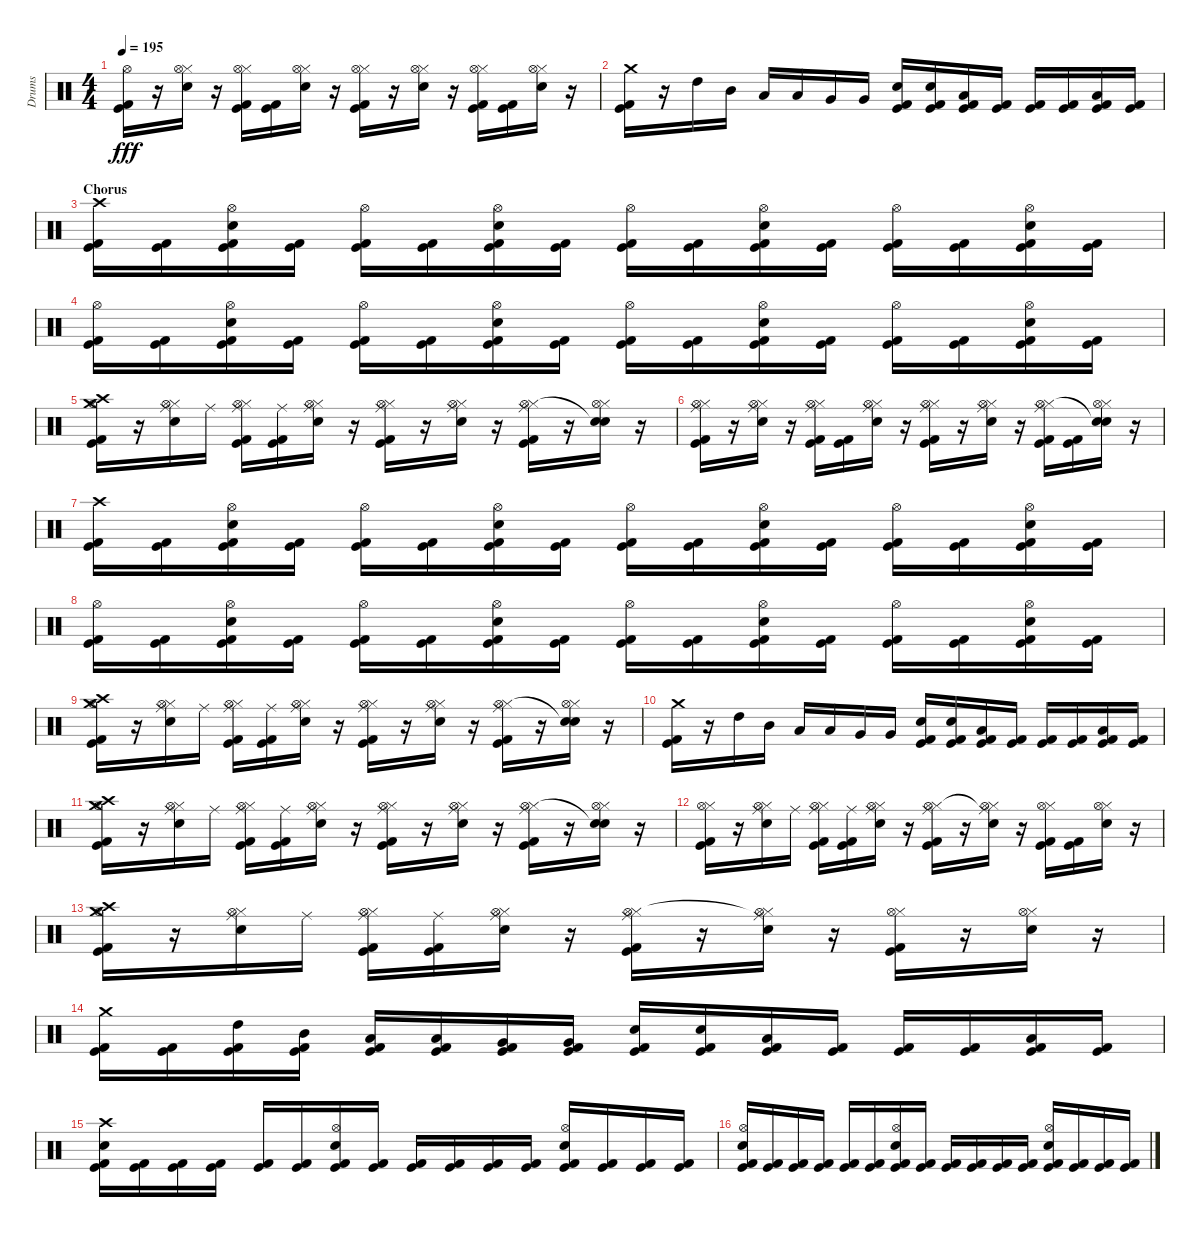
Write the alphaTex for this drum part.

\track ("Drums" "Drums") {instrument percussion}
\staff {score}
\articulation defaults
\ts (4 4)
\tempo 195
\clef neutral
\ks c
("Kick (hit) 2" "Kick (hit)" "Hi-Hat (open)").16{dy fff} r.16 ("Snare (hit) 2" "Hi-Hat (closed)" "Hi-Hat (open)").16 r.16 ("Kick (hit) 2" "Kick (hit)" "Hi-Hat (closed)" "Hi-Hat (open)").16 ("Kick (hit) 2" "Kick (hit)").16 ("Snare (hit) 2" "Hi-Hat (closed)" "Hi-Hat (open)").16 r.16 ("Kick (hit) 2" "Kick (hit)" "Hi-Hat (closed)" "Hi-Hat (open)").16 r.16 ("Snare (hit) 2" "Hi-Hat (closed)" "Hi-Hat (open)").16 r.16 ("Kick (hit) 2" "Kick (hit)" "Hi-Hat (closed)" "Hi-Hat (open)").16 ("Kick (hit) 2" "Kick (hit)").16 ("Snare (hit) 2" "Hi-Hat (closed)" "Hi-Hat (open)").16 r.16 |
("Kick (hit) 2" "Kick (hit)" "Crash medium (hit)").16 r.16 "High Tom (hit)".16 "Mid Tom (hit)".16 "Low Tom (hit)".16 "Low Tom (hit)".16 "Very Low Tom (hit)".16 "Very Low Tom (hit)".16 ("Kick (hit) 2" "Kick (hit)" "Snare (hit) 2").16 ("Kick (hit) 2" "Kick (hit)" "Snare (hit) 2").16 ("Kick (hit) 2" "Kick (hit)" "Low Tom (hit)").16 ("Kick (hit) 2" "Kick (hit)").16 ("Kick (hit) 2" "Kick (hit)").16 ("Kick (hit) 2" "Kick (hit)").16 ("Kick (hit) 2" "Kick (hit)" "Low Floor Tom (hit)").16 ("Kick (hit) 2" "Kick (hit)").16 |
\section ("" "Chorus")
("Kick (hit) 2" "Kick (hit)" "Crash high (hit)").16 ("Kick (hit) 2" "Kick (hit)").16 ("Kick (hit) 2" "Kick (hit)" "Snare (hit) 2" "Hi-Hat (open)").16 ("Kick (hit) 2" "Kick (hit)").16 ("Kick (hit) 2" "Kick (hit)" "Hi-Hat (open)").16 ("Kick (hit) 2" "Kick (hit)").16 ("Kick (hit) 2" "Kick (hit)" "Snare (hit) 2" "Hi-Hat (open)").16 ("Kick (hit) 2" "Kick (hit)").16 ("Kick (hit) 2" "Kick (hit)" "Hi-Hat (open)").16 ("Kick (hit) 2" "Kick (hit)").16 ("Kick (hit) 2" "Kick (hit)" "Snare (hit) 2" "Hi-Hat (open)").16 ("Kick (hit) 2" "Kick (hit)").16 ("Kick (hit) 2" "Kick (hit)" "Hi-Hat (open)").16 ("Kick (hit) 2" "Kick (hit)").16 ("Kick (hit) 2" "Kick (hit)" "Snare (hit) 2" "Hi-Hat (open)").16 ("Kick (hit) 2" "Kick (hit)").16 |
("Kick (hit) 2" "Kick (hit)" "Hi-Hat (open)").16 ("Kick (hit) 2" "Kick (hit)").16 ("Kick (hit) 2" "Kick (hit)" "Snare (hit) 2" "Hi-Hat (open)").16 ("Kick (hit) 2" "Kick (hit)").16 ("Kick (hit) 2" "Kick (hit)" "Hi-Hat (open)").16 ("Kick (hit) 2" "Kick (hit)").16 ("Kick (hit) 2" "Kick (hit)" "Snare (hit) 2" "Hi-Hat (open)").16 ("Kick (hit) 2" "Kick (hit)").16 ("Kick (hit) 2" "Kick (hit)" "Hi-Hat (open)").16 ("Kick (hit) 2" "Kick (hit)").16 ("Kick (hit) 2" "Kick (hit)" "Snare (hit) 2" "Hi-Hat (open)").16 ("Kick (hit) 2" "Kick (hit)").16 ("Kick (hit) 2" "Kick (hit)" "Hi-Hat (open)").16 ("Kick (hit) 2" "Kick (hit)").16 ("Kick (hit) 2" "Kick (hit)" "Snare (hit) 2" "Hi-Hat (open)").16 ("Kick (hit) 2" "Kick (hit)").16 |
("Kick (hit) 2" "Kick (hit)" "Crash high (hit)" "Hi-Hat (open)" "Crash medium (hit)").16 r.16 ("Snare (hit) 2" "Hi-Hat (closed)" "Ride (middle)" "Hi-Hat (open)").16 "Ride (middle)".16 ("Kick (hit) 2" "Kick (hit)" "Hi-Hat (closed)" "Ride (middle)" "Hi-Hat (open)").16 ("Kick (hit) 2" "Kick (hit)" "Ride (middle)").16 ("Snare (hit) 2" "Hi-Hat (closed)" "Ride (middle)" "Hi-Hat (open)").16 r.16 ("Kick (hit) 2" "Kick (hit)" "Hi-Hat (closed)" "Ride (middle)" "Hi-Hat (open)").16 r.16 ("Snare (hit) 2" "Hi-Hat (closed)" "Ride (middle)" "Hi-Hat (open)").16 r.16 ("Kick (hit) 2" "Kick (hit)" "Hi-Hat (closed)" "Ride (middle)" "Hi-Hat (open)").16 r.16 ("Snare (hit) 2" "Hi-Hat (closed)" "Snare (hit)"{t} "Hi-Hat (open)").16 r.16 |
("Kick (hit) 2" "Kick (hit)" "Hi-Hat (closed)" "Ride (middle)" "Hi-Hat (open)").16 r.16 ("Snare (hit) 2" "Hi-Hat (closed)" "Ride (middle)" "Hi-Hat (open)").16 r.16 ("Kick (hit) 2" "Kick (hit)" "Hi-Hat (closed)" "Ride (middle)" "Hi-Hat (open)").16 ("Kick (hit) 2" "Kick (hit)").16 ("Snare (hit) 2" "Hi-Hat (closed)" "Ride (middle)" "Hi-Hat (open)").16 r.16 ("Kick (hit) 2" "Kick (hit)" "Hi-Hat (closed)" "Ride (middle)" "Hi-Hat (open)").16 r.16 ("Snare (hit) 2" "Hi-Hat (closed)" "Ride (middle)" "Hi-Hat (open)").16 r.16 ("Kick (hit) 2" "Kick (hit)" "Hi-Hat (closed)" "Ride (middle)" "Hi-Hat (open)").16 ("Kick (hit) 2" "Kick (hit)").16 ("Snare (hit) 2" "Hi-Hat (closed)" "Snare (hit)"{t} "Hi-Hat (open)").16 r.16 |
("Kick (hit) 2" "Kick (hit)" "Crash high (hit)").16 ("Kick (hit) 2" "Kick (hit)").16 ("Kick (hit) 2" "Kick (hit)" "Snare (hit) 2" "Hi-Hat (open)").16 ("Kick (hit) 2" "Kick (hit)").16 ("Kick (hit) 2" "Kick (hit)" "Hi-Hat (open)").16 ("Kick (hit) 2" "Kick (hit)").16 ("Kick (hit) 2" "Kick (hit)" "Snare (hit) 2" "Hi-Hat (open)").16 ("Kick (hit) 2" "Kick (hit)").16 ("Kick (hit) 2" "Kick (hit)" "Hi-Hat (open)").16 ("Kick (hit) 2" "Kick (hit)").16 ("Kick (hit) 2" "Kick (hit)" "Snare (hit) 2" "Hi-Hat (open)").16 ("Kick (hit) 2" "Kick (hit)").16 ("Kick (hit) 2" "Kick (hit)" "Hi-Hat (open)").16 ("Kick (hit) 2" "Kick (hit)").16 ("Kick (hit) 2" "Kick (hit)" "Snare (hit) 2" "Hi-Hat (open)").16 ("Kick (hit) 2" "Kick (hit)").16 |
("Kick (hit) 2" "Kick (hit)" "Hi-Hat (open)").16 ("Kick (hit) 2" "Kick (hit)").16 ("Kick (hit) 2" "Kick (hit)" "Snare (hit) 2" "Hi-Hat (open)").16 ("Kick (hit) 2" "Kick (hit)").16 ("Kick (hit) 2" "Kick (hit)" "Hi-Hat (open)").16 ("Kick (hit) 2" "Kick (hit)").16 ("Kick (hit) 2" "Kick (hit)" "Snare (hit) 2" "Hi-Hat (open)").16 ("Kick (hit) 2" "Kick (hit)").16 ("Kick (hit) 2" "Kick (hit)" "Hi-Hat (open)").16 ("Kick (hit) 2" "Kick (hit)").16 ("Kick (hit) 2" "Kick (hit)" "Snare (hit) 2" "Hi-Hat (open)").16 ("Kick (hit) 2" "Kick (hit)").16 ("Kick (hit) 2" "Kick (hit)" "Hi-Hat (open)").16 ("Kick (hit) 2" "Kick (hit)").16 ("Kick (hit) 2" "Kick (hit)" "Snare (hit) 2" "Hi-Hat (open)").16 ("Kick (hit) 2" "Kick (hit)").16 |
("Kick (hit) 2" "Kick (hit)" "Crash high (hit)" "Hi-Hat (open)" "Crash medium (hit)").16 r.16 ("Snare (hit) 2" "Hi-Hat (closed)" "Ride (middle)" "Hi-Hat (open)").16 "Ride (middle)".16 ("Kick (hit) 2" "Kick (hit)" "Hi-Hat (closed)" "Ride (middle)" "Hi-Hat (open)").16 ("Kick (hit) 2" "Kick (hit)" "Ride (middle)").16 ("Snare (hit) 2" "Hi-Hat (closed)" "Ride (middle)" "Hi-Hat (open)").16 r.16 ("Kick (hit) 2" "Kick (hit)" "Hi-Hat (closed)" "Ride (middle)" "Hi-Hat (open)").16 r.16 ("Snare (hit) 2" "Hi-Hat (closed)" "Ride (middle)" "Hi-Hat (open)").16 r.16 ("Kick (hit) 2" "Kick (hit)" "Hi-Hat (closed)" "Ride (middle)" "Hi-Hat (open)").16 r.16 ("Snare (hit) 2" "Hi-Hat (closed)" "Snare (hit)"{t} "Hi-Hat (open)").16 r.16 |
("Kick (hit) 2" "Kick (hit)" "Crash medium (hit)").16 r.16 "High Tom (hit)".16 "Mid Tom (hit)".16 "Low Tom (hit)".16 "Low Tom (hit)".16 "Very Low Tom (hit)".16 "Very Low Tom (hit)".16 ("Kick (hit) 2" "Kick (hit)" "Snare (hit) 2").16 ("Kick (hit) 2" "Kick (hit)" "Snare (hit) 2").16 ("Kick (hit) 2" "Kick (hit)" "Low Tom (hit)").16 ("Kick (hit) 2" "Kick (hit)").16 ("Kick (hit) 2" "Kick (hit)").16 ("Kick (hit) 2" "Kick (hit)").16 ("Kick (hit) 2" "Kick (hit)" "Low Floor Tom (hit)").16 ("Kick (hit) 2" "Kick (hit)").16 |
("Kick (hit) 2" "Kick (hit)" "Crash high (hit)" "Hi-Hat (open)" "Crash medium (hit)").16 r.16 ("Snare (hit) 2" "Hi-Hat (closed)" "Ride (middle)" "Hi-Hat (open)").16 "Ride (middle)".16 ("Kick (hit) 2" "Kick (hit)" "Hi-Hat (closed)" "Ride (middle)" "Hi-Hat (open)").16 ("Kick (hit) 2" "Kick (hit)" "Ride (middle)").16 ("Snare (hit) 2" "Hi-Hat (closed)" "Ride (middle)" "Hi-Hat (open)").16 r.16 ("Kick (hit) 2" "Kick (hit)" "Hi-Hat (closed)" "Ride (middle)" "Hi-Hat (open)").16 r.16 ("Snare (hit) 2" "Hi-Hat (closed)" "Ride (middle)" "Hi-Hat (open)").16 r.16 ("Kick (hit) 2" "Kick (hit)" "Hi-Hat (closed)" "Ride (middle)" "Hi-Hat (open)").16 r.16 ("Snare (hit) 2" "Hi-Hat (closed)" "Snare (hit)"{t} "Hi-Hat (open)").16 r.16 |
("Kick (hit) 2" "Kick (hit)" "Hi-Hat (closed)" "Hi-Hat (open)").16 r.16 ("Snare (hit) 2" "Hi-Hat (closed)" "Ride (middle)" "Hi-Hat (open)").16 "Ride (middle)".16 ("Kick (hit) 2" "Kick (hit)" "Hi-Hat (closed)" "Ride (middle)" "Hi-Hat (open)").16 ("Kick (hit) 2" "Kick (hit)" "Ride (middle)").16 ("Snare (hit) 2" "Hi-Hat (closed)" "Ride (middle)" "Hi-Hat (open)").16 r.16 ("Kick (hit) 2" "Kick (hit)" "Hi-Hat (closed)" "Ride (middle)" "Hi-Hat (open)").16 r.16 ("Snare (hit) 2" "Hi-Hat (closed)" "Ride (middle)"{t} "Hi-Hat (open)").16 r.16 ("Kick (hit) 2" "Kick (hit)" "Hi-Hat (closed)" "Hi-Hat (open)").16 ("Kick (hit) 2" "Kick (hit)").16 ("Snare (hit) 2" "Hi-Hat (closed)" "Hi-Hat (open)").16 r.16 |
("Kick (hit) 2" "Kick (hit)" "Crash high (hit)" "Hi-Hat (open)" "Crash medium (hit)").16 r.16 ("Snare (hit) 2" "Hi-Hat (closed)" "Ride (middle)" "Hi-Hat (open)").16 "Ride (middle)".16 ("Kick (hit) 2" "Kick (hit)" "Hi-Hat (closed)" "Ride (middle)" "Hi-Hat (open)").16 ("Kick (hit) 2" "Kick (hit)" "Ride (middle)").16 ("Snare (hit) 2" "Hi-Hat (closed)" "Ride (middle)" "Hi-Hat (open)").16 r.16 ("Kick (hit) 2" "Kick (hit)" "Hi-Hat (closed)" "Ride (middle)" "Hi-Hat (open)").16 r.16 ("Snare (hit) 2" "Hi-Hat (closed)" "Ride (middle)"{t} "Hi-Hat (open)").16 r.16 ("Kick (hit) 2" "Kick (hit)" "Hi-Hat (closed)" "Hi-Hat (open)").16 r.16 ("Snare (hit) 2" "Hi-Hat (closed)" "Hi-Hat (open)").16 r.16 |
("Kick (hit) 2" "Kick (hit)" "Crash medium (hit)").16 ("Kick (hit) 2" "Kick (hit)").16 ("Kick (hit) 2" "Kick (hit)" "High Tom (hit)").16 ("Kick (hit) 2" "Kick (hit)" "Mid Tom (hit)").16 ("Kick (hit) 2" "Kick (hit)" "Low Tom (hit)").16 ("Kick (hit) 2" "Kick (hit)" "Low Tom (hit)").16 ("Kick (hit) 2" "Kick (hit)" "Very Low Tom (hit)").16 ("Kick (hit) 2" "Kick (hit)" "Very Low Tom (hit)").16 ("Kick (hit) 2" "Kick (hit)" "Snare (hit) 2").16 ("Kick (hit) 2" "Kick (hit)" "Snare (hit) 2").16 ("Kick (hit) 2" "Kick (hit)" "Low Tom (hit)").16 ("Kick (hit) 2" "Kick (hit)").16 ("Kick (hit) 2" "Kick (hit)").16 ("Kick (hit) 2" "Kick (hit)").16 ("Kick (hit) 2" "Kick (hit)" "Low Floor Tom (hit)").16 ("Kick (hit) 2" "Kick (hit)").16 |
("Kick (hit) 2" "Kick (hit)" "Snare (hit) 2" "Crash high (hit)").16 ("Kick (hit) 2" "Kick (hit)").16 ("Kick (hit) 2" "Kick (hit)").16 ("Kick (hit) 2" "Kick (hit)").16 ("Kick (hit) 2" "Kick (hit)").16 ("Kick (hit) 2" "Kick (hit)").16 ("Kick (hit) 2" "Kick (hit)" "Snare (hit) 2" "Hi-Hat (open)").16 ("Kick (hit) 2" "Kick (hit)").16 ("Kick (hit) 2" "Kick (hit)").16 ("Kick (hit) 2" "Kick (hit)").16 ("Kick (hit) 2" "Kick (hit)").16 ("Kick (hit) 2" "Kick (hit)").16 ("Kick (hit) 2" "Kick (hit)" "Snare (hit) 2" "Hi-Hat (open)").16 ("Kick (hit) 2" "Kick (hit)").16 ("Kick (hit) 2" "Kick (hit)").16 ("Kick (hit) 2" "Kick (hit)").16 |
("Kick (hit) 2" "Kick (hit)" "Snare (hit) 2" "Hi-Hat (open)").16 ("Kick (hit) 2" "Kick (hit)").16 ("Kick (hit) 2" "Kick (hit)").16 ("Kick (hit) 2" "Kick (hit)").16 ("Kick (hit) 2" "Kick (hit)").16 ("Kick (hit) 2" "Kick (hit)").16 ("Kick (hit) 2" "Kick (hit)" "Snare (hit) 2" "Hi-Hat (open)").16 ("Kick (hit) 2" "Kick (hit)").16 ("Kick (hit) 2" "Kick (hit)").16 ("Kick (hit) 2" "Kick (hit)").16 ("Kick (hit) 2" "Kick (hit)").16 ("Kick (hit) 2" "Kick (hit)").16 ("Kick (hit) 2" "Kick (hit)" "Snare (hit) 2" "Hi-Hat (open)").16 ("Kick (hit) 2" "Kick (hit)").16 ("Kick (hit) 2" "Kick (hit)").16 ("Kick (hit) 2" "Kick (hit)").16
